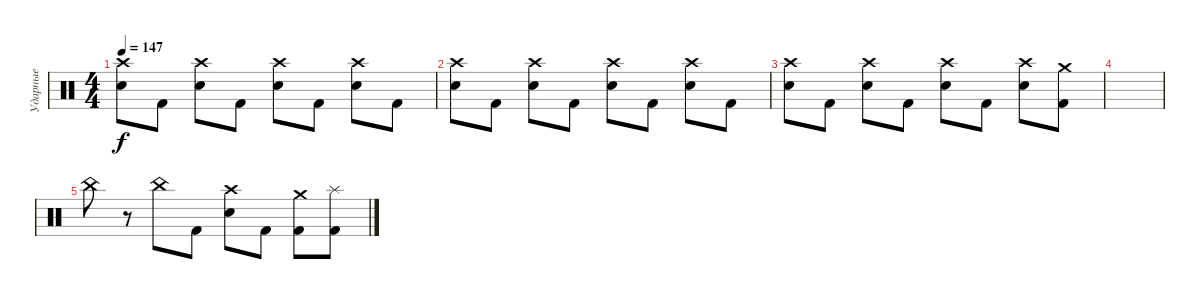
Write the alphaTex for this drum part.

\track ("Ударные" "Ударные") {instrument percussion}
\staff {score}
\articulation defaults
\ts (4 4)
\tempo 147
\clef neutral
\ks c
("Crash high (hit)" "Electric Snare (hit)").8{dy f} "Kick (hit) 2".8 ("Crash high (hit)" "Electric Snare (hit)").8 "Kick (hit) 2".8 ("Crash high (hit)" "Electric Snare (hit)").8 "Kick (hit) 2".8 ("Crash high (hit)" "Electric Snare (hit)").8 "Kick (hit) 2".8 |
("Crash high (hit)" "Electric Snare (hit)").8 "Kick (hit) 2".8 ("Crash high (hit)" "Electric Snare (hit)").8 "Kick (hit) 2".8 ("Crash high (hit)" "Electric Snare (hit)").8 "Kick (hit) 2".8 ("Crash high (hit)" "Electric Snare (hit)").8 "Kick (hit) 2".8 |
("Crash high (hit)" "Electric Snare (hit)").8 "Kick (hit) 2".8 ("Crash high (hit)" "Electric Snare (hit)").8 "Kick (hit) 2".8 ("Crash high (hit)" "Electric Snare (hit)").8 "Kick (hit) 2".8 ("Crash high (hit)" "Electric Snare (hit)").8 ("Crash medium (hit)" "Kick (hit) 2").8 |
|
"China (hit)".8 r.8 "China (hit)".8 "Kick (hit) 2".8 ("Crash high (hit)" "Electric Snare (hit)").8 "Kick (hit) 2".8 ("Crash medium (hit)" "Kick (hit) 2").8 ("Splash (hit)" "Kick (hit) 2").8
